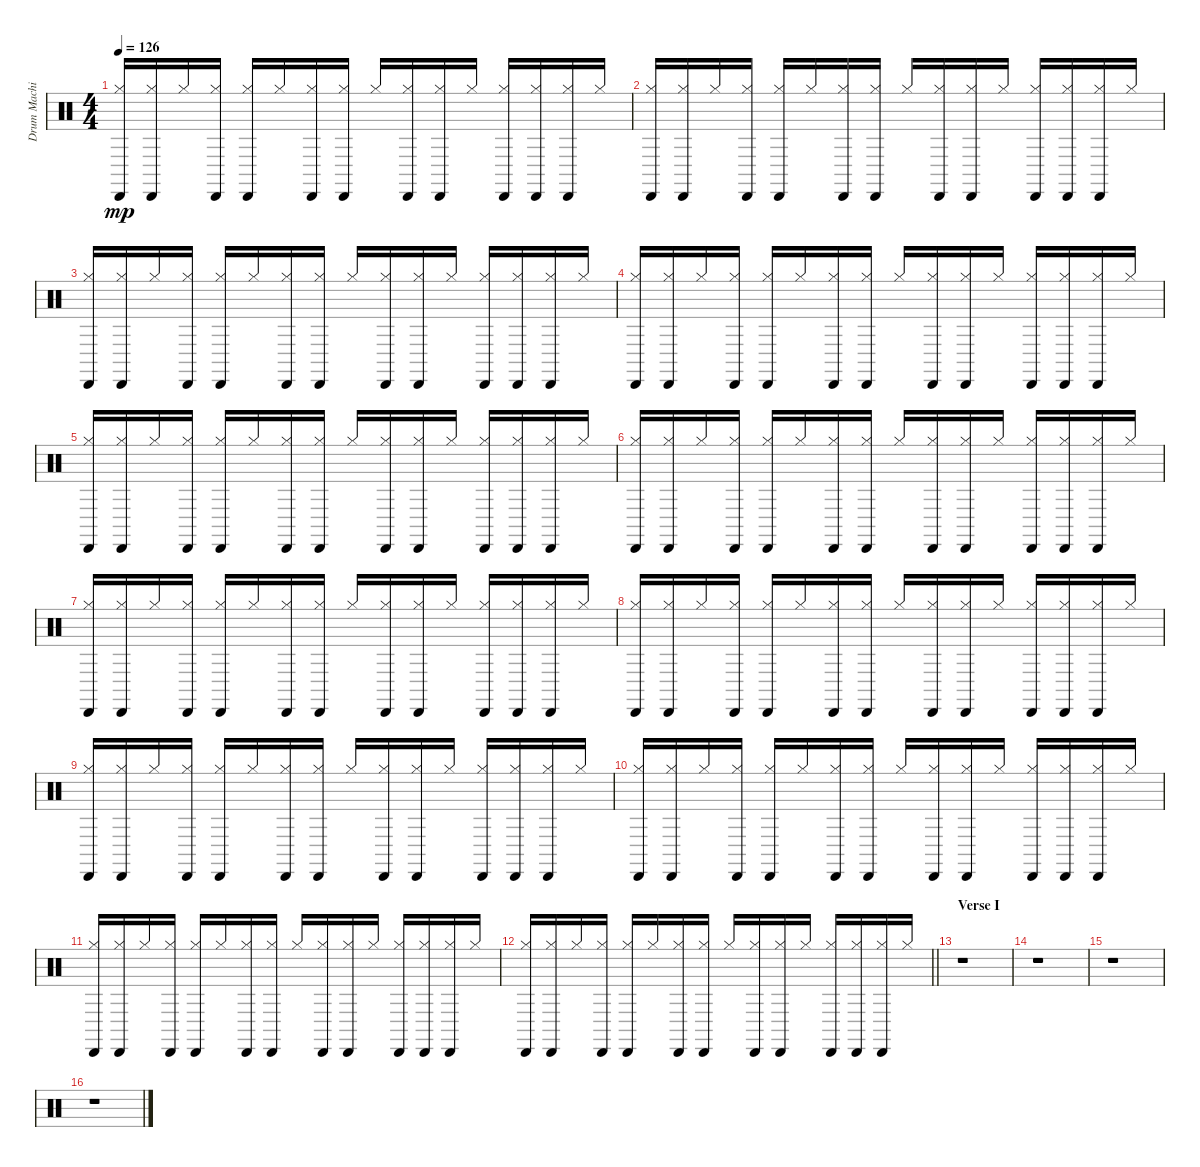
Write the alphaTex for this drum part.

\track ("Drum Machine" "Drum Machi") {instrument percussion}
\staff {score}
\articulation defaults
\ts (4 4)
\tempo 126
\clef neutral
\ks c
("Cabasa (hit)" "Hi-Hat (closed)").16{dy mp} ("Cabasa (hit)" "Hi-Hat (closed)").16 "Hi-Hat (closed)".16 ("Cabasa (hit)" "Hi-Hat (closed)").16 ("Cabasa (hit)" "Hi-Hat (closed)").16 "Hi-Hat (closed)".16 ("Cabasa (hit)" "Hi-Hat (closed)").16 ("Cabasa (hit)" "Hi-Hat (closed)").16 "Hi-Hat (closed)".16 ("Cabasa (hit)" "Hi-Hat (closed)").16 ("Cabasa (hit)" "Hi-Hat (closed)").16 "Hi-Hat (closed)".16 ("Cabasa (hit)" "Hi-Hat (closed)").16 ("Cabasa (hit)" "Hi-Hat (closed)").16 ("Cabasa (hit)" "Hi-Hat (closed)").16 "Hi-Hat (closed)".16 |
("Cabasa (hit)" "Hi-Hat (closed)").16 ("Cabasa (hit)" "Hi-Hat (closed)").16 "Hi-Hat (closed)".16 ("Cabasa (hit)" "Hi-Hat (closed)").16 ("Cabasa (hit)" "Hi-Hat (closed)").16 "Hi-Hat (closed)".16 ("Cabasa (hit)" "Hi-Hat (closed)").16 ("Cabasa (hit)" "Hi-Hat (closed)").16 "Hi-Hat (closed)".16 ("Cabasa (hit)" "Hi-Hat (closed)").16 ("Cabasa (hit)" "Hi-Hat (closed)").16 "Hi-Hat (closed)".16 ("Cabasa (hit)" "Hi-Hat (closed)").16 ("Cabasa (hit)" "Hi-Hat (closed)").16 ("Cabasa (hit)" "Hi-Hat (closed)").16 "Hi-Hat (closed)".16 |
("Cabasa (hit)" "Hi-Hat (closed)").16 ("Cabasa (hit)" "Hi-Hat (closed)").16 "Hi-Hat (closed)".16 ("Cabasa (hit)" "Hi-Hat (closed)").16 ("Cabasa (hit)" "Hi-Hat (closed)").16 "Hi-Hat (closed)".16 ("Cabasa (hit)" "Hi-Hat (closed)").16 ("Cabasa (hit)" "Hi-Hat (closed)").16 "Hi-Hat (closed)".16 ("Cabasa (hit)" "Hi-Hat (closed)").16 ("Cabasa (hit)" "Hi-Hat (closed)").16 "Hi-Hat (closed)".16 ("Cabasa (hit)" "Hi-Hat (closed)").16 ("Cabasa (hit)" "Hi-Hat (closed)").16 ("Cabasa (hit)" "Hi-Hat (closed)").16 "Hi-Hat (closed)".16 |
("Cabasa (hit)" "Hi-Hat (closed)").16 ("Cabasa (hit)" "Hi-Hat (closed)").16 "Hi-Hat (closed)".16 ("Cabasa (hit)" "Hi-Hat (closed)").16 ("Cabasa (hit)" "Hi-Hat (closed)").16 "Hi-Hat (closed)".16 ("Cabasa (hit)" "Hi-Hat (closed)").16 ("Cabasa (hit)" "Hi-Hat (closed)").16 "Hi-Hat (closed)".16 ("Cabasa (hit)" "Hi-Hat (closed)").16 ("Cabasa (hit)" "Hi-Hat (closed)").16 "Hi-Hat (closed)".16 ("Cabasa (hit)" "Hi-Hat (closed)").16 ("Cabasa (hit)" "Hi-Hat (closed)").16 ("Cabasa (hit)" "Hi-Hat (closed)").16 "Hi-Hat (closed)".16 |
("Cabasa (hit)" "Hi-Hat (closed)").16 ("Cabasa (hit)" "Hi-Hat (closed)").16 "Hi-Hat (closed)".16 ("Cabasa (hit)" "Hi-Hat (closed)").16 ("Cabasa (hit)" "Hi-Hat (closed)").16 "Hi-Hat (closed)".16 ("Cabasa (hit)" "Hi-Hat (closed)").16 ("Cabasa (hit)" "Hi-Hat (closed)").16 "Hi-Hat (closed)".16 ("Cabasa (hit)" "Hi-Hat (closed)").16 ("Cabasa (hit)" "Hi-Hat (closed)").16 "Hi-Hat (closed)".16 ("Cabasa (hit)" "Hi-Hat (closed)").16 ("Cabasa (hit)" "Hi-Hat (closed)").16 ("Cabasa (hit)" "Hi-Hat (closed)").16 "Hi-Hat (closed)".16 |
("Cabasa (hit)" "Hi-Hat (closed)").16 ("Cabasa (hit)" "Hi-Hat (closed)").16 "Hi-Hat (closed)".16 ("Cabasa (hit)" "Hi-Hat (closed)").16 ("Cabasa (hit)" "Hi-Hat (closed)").16 "Hi-Hat (closed)".16 ("Cabasa (hit)" "Hi-Hat (closed)").16 ("Cabasa (hit)" "Hi-Hat (closed)").16 "Hi-Hat (closed)".16 ("Cabasa (hit)" "Hi-Hat (closed)").16 ("Cabasa (hit)" "Hi-Hat (closed)").16 "Hi-Hat (closed)".16 ("Cabasa (hit)" "Hi-Hat (closed)").16 ("Cabasa (hit)" "Hi-Hat (closed)").16 ("Cabasa (hit)" "Hi-Hat (closed)").16 "Hi-Hat (closed)".16 |
("Cabasa (hit)" "Hi-Hat (closed)").16 ("Cabasa (hit)" "Hi-Hat (closed)").16 "Hi-Hat (closed)".16 ("Cabasa (hit)" "Hi-Hat (closed)").16 ("Cabasa (hit)" "Hi-Hat (closed)").16 "Hi-Hat (closed)".16 ("Cabasa (hit)" "Hi-Hat (closed)").16 ("Cabasa (hit)" "Hi-Hat (closed)").16 "Hi-Hat (closed)".16 ("Cabasa (hit)" "Hi-Hat (closed)").16 ("Cabasa (hit)" "Hi-Hat (closed)").16 "Hi-Hat (closed)".16 ("Cabasa (hit)" "Hi-Hat (closed)").16 ("Cabasa (hit)" "Hi-Hat (closed)").16 ("Cabasa (hit)" "Hi-Hat (closed)").16 "Hi-Hat (closed)".16 |
("Cabasa (hit)" "Hi-Hat (closed)").16 ("Cabasa (hit)" "Hi-Hat (closed)").16 "Hi-Hat (closed)".16 ("Cabasa (hit)" "Hi-Hat (closed)").16 ("Cabasa (hit)" "Hi-Hat (closed)").16 "Hi-Hat (closed)".16 ("Cabasa (hit)" "Hi-Hat (closed)").16 ("Cabasa (hit)" "Hi-Hat (closed)").16 "Hi-Hat (closed)".16 ("Cabasa (hit)" "Hi-Hat (closed)").16 ("Cabasa (hit)" "Hi-Hat (closed)").16 "Hi-Hat (closed)".16 ("Cabasa (hit)" "Hi-Hat (closed)").16 ("Cabasa (hit)" "Hi-Hat (closed)").16 ("Cabasa (hit)" "Hi-Hat (closed)").16 "Hi-Hat (closed)".16 |
("Cabasa (hit)" "Hi-Hat (closed)").16 ("Cabasa (hit)" "Hi-Hat (closed)").16 "Hi-Hat (closed)".16 ("Cabasa (hit)" "Hi-Hat (closed)").16 ("Cabasa (hit)" "Hi-Hat (closed)").16 "Hi-Hat (closed)".16 ("Cabasa (hit)" "Hi-Hat (closed)").16 ("Cabasa (hit)" "Hi-Hat (closed)").16 "Hi-Hat (closed)".16 ("Cabasa (hit)" "Hi-Hat (closed)").16 ("Cabasa (hit)" "Hi-Hat (closed)").16 "Hi-Hat (closed)".16 ("Cabasa (hit)" "Hi-Hat (closed)").16 ("Cabasa (hit)" "Hi-Hat (closed)").16 ("Cabasa (hit)" "Hi-Hat (closed)").16 "Hi-Hat (closed)".16 |
("Cabasa (hit)" "Hi-Hat (closed)").16 ("Cabasa (hit)" "Hi-Hat (closed)").16 "Hi-Hat (closed)".16 ("Cabasa (hit)" "Hi-Hat (closed)").16 ("Cabasa (hit)" "Hi-Hat (closed)").16 "Hi-Hat (closed)".16 ("Cabasa (hit)" "Hi-Hat (closed)").16 ("Cabasa (hit)" "Hi-Hat (closed)").16 "Hi-Hat (closed)".16 ("Cabasa (hit)" "Hi-Hat (closed)").16 ("Cabasa (hit)" "Hi-Hat (closed)").16 "Hi-Hat (closed)".16 ("Cabasa (hit)" "Hi-Hat (closed)").16 ("Cabasa (hit)" "Hi-Hat (closed)").16 ("Cabasa (hit)" "Hi-Hat (closed)").16 "Hi-Hat (closed)".16 |
("Cabasa (hit)" "Hi-Hat (closed)").16 ("Cabasa (hit)" "Hi-Hat (closed)").16 "Hi-Hat (closed)".16 ("Cabasa (hit)" "Hi-Hat (closed)").16 ("Cabasa (hit)" "Hi-Hat (closed)").16 "Hi-Hat (closed)".16 ("Cabasa (hit)" "Hi-Hat (closed)").16 ("Cabasa (hit)" "Hi-Hat (closed)").16 "Hi-Hat (closed)".16 ("Cabasa (hit)" "Hi-Hat (closed)").16 ("Cabasa (hit)" "Hi-Hat (closed)").16 "Hi-Hat (closed)".16 ("Cabasa (hit)" "Hi-Hat (closed)").16 ("Cabasa (hit)" "Hi-Hat (closed)").16 ("Cabasa (hit)" "Hi-Hat (closed)").16 "Hi-Hat (closed)".16 |
\barLineRight lightlight
("Cabasa (hit)" "Hi-Hat (closed)").16 ("Cabasa (hit)" "Hi-Hat (closed)").16 "Hi-Hat (closed)".16 ("Cabasa (hit)" "Hi-Hat (closed)").16 ("Cabasa (hit)" "Hi-Hat (closed)").16 "Hi-Hat (closed)".16 ("Cabasa (hit)" "Hi-Hat (closed)").16 ("Cabasa (hit)" "Hi-Hat (closed)").16 "Hi-Hat (closed)".16 ("Cabasa (hit)" "Hi-Hat (closed)").16 ("Cabasa (hit)" "Hi-Hat (closed)").16 "Hi-Hat (closed)".16 ("Cabasa (hit)" "Hi-Hat (closed)").16 ("Cabasa (hit)" "Hi-Hat (closed)").16 ("Cabasa (hit)" "Hi-Hat (closed)").16 "Hi-Hat (closed)".16 |
\section ("" "Verse I")
r.1 |
r.1 |
r.1 |
r.1
